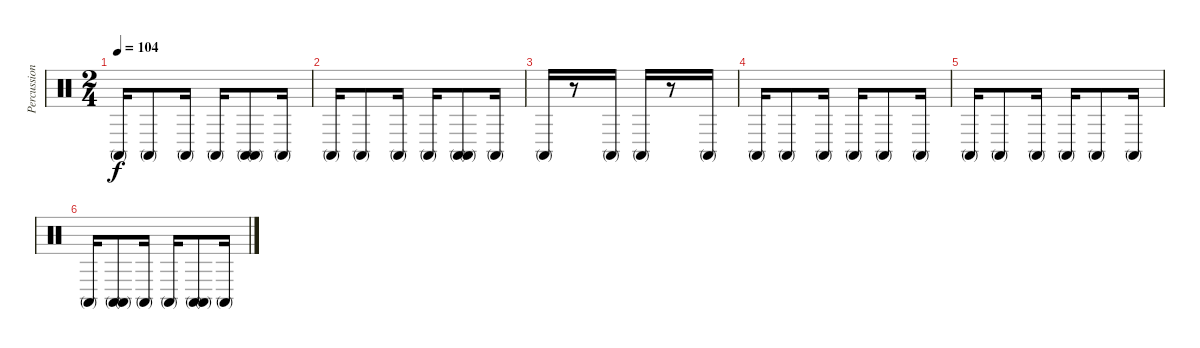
\track ("Percussion" "Percussion") {instrument percussion}
\staff {score}
\articulation defaults
\ts (2 4)
\tempo 104
\clef neutral
\ks c "Conga high (mute)".16{dy f} "Conga high (mute)".8 "Conga high (mute)".16 "Conga high (mute)".16
("Conga high (mute)" "Conga high (mute)").8 "Conga high (mute)".16 |
"Conga high (mute)".16 "Conga high (mute)".8 "Conga high (mute)".16 "Conga high (mute)".16 ("Conga high (mute)" "Conga high (mute)").8 "Conga high (mute)".16 |
"Conga high (mute)".16 r.8 "Conga high (mute)".16 "Conga high (mute)".16 r.8 "Conga high (mute)".16 |
"Conga high (mute)".16 "Conga high (mute)".8 "Conga high (mute)".16 "Conga high (mute)".16 "Conga high (mute)".8 "Conga high (mute)".16 |
"Conga high (mute)".16 "Conga high (mute)".8 "Conga high (mute)".16 "Conga high (mute)".16 "Conga high (mute)".8 "Conga high (mute)".16 |
"Conga high (mute)".16 ("Conga high (mute)" "Conga high (mute)").8 "Conga high (mute)".16 "Conga high (mute)".16 ("Conga high (mute)" "Conga high (mute)").8 "Conga high (mute)".16
